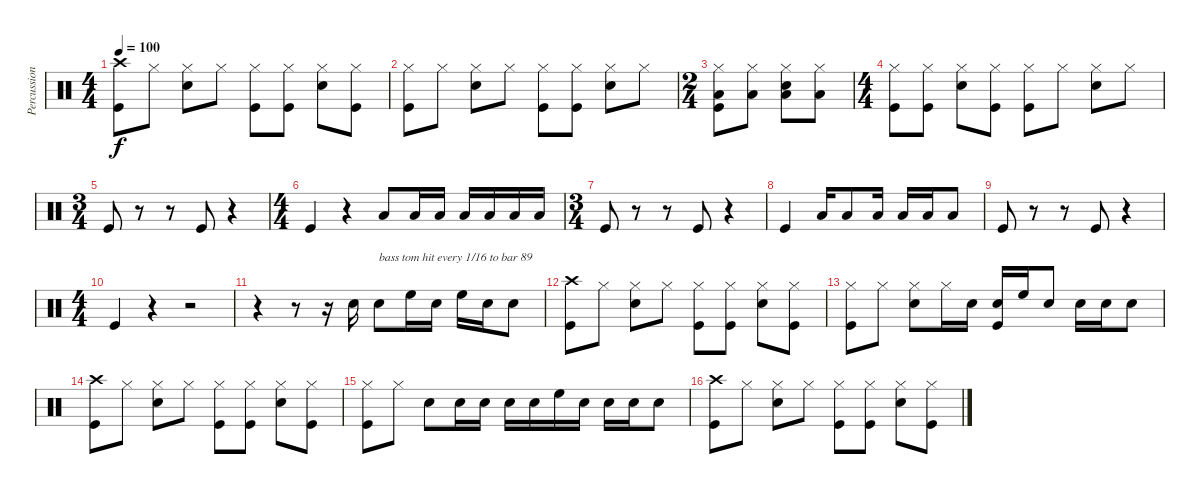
\track ("Percussion" "Percussion") {instrument percussion}
\staff {score}
\articulation defaults
\ts (4 4)
\tempo 100
\clef neutral
\ks c
("Crash high (hit)" "Kick (hit)").8{dy f} "Hi-Hat (closed)".8 ("Hi-Hat (closed)" "Snare (hit) 2").8 "Hi-Hat (closed)".8 ("Hi-Hat (closed)" "Kick (hit)").8 ("Hi-Hat (closed)" "Kick (hit)").8 ("Hi-Hat (closed)" "Snare (hit) 2").8 ("Hi-Hat (closed)" "Kick (hit)").8 |
("Hi-Hat (closed)" "Kick (hit)").8 "Hi-Hat (closed)".8 ("Hi-Hat (closed)" "Snare (hit) 2").8 "Hi-Hat (closed)".8 ("Hi-Hat (closed)" "Kick (hit)").8 ("Hi-Hat (closed)" "Kick (hit)").8 ("Hi-Hat (closed)" "Snare (hit) 2").8 "Hi-Hat (closed)".8 |
\ts (2 4)
("Hi-Hat (closed)" "Low Floor Tom (hit)" "Kick (hit)").8 ("Hi-Hat (closed)" "Low Floor Tom (hit)").8 ("Hi-Hat (closed)" "Snare (hit) 2" "Low Floor Tom (hit)").8 ("Hi-Hat (closed)" "Low Floor Tom (hit)").8 |
\ts (4 4)
("Hi-Hat (closed)" "Kick (hit)").8 ("Hi-Hat (closed)" "Kick (hit)").8 ("Hi-Hat (closed)" "Snare (hit) 2").8 ("Hi-Hat (closed)" "Kick (hit)").8 ("Hi-Hat (closed)" "Kick (hit)").8 "Hi-Hat (closed)".8 ("Hi-Hat (closed)" "Snare (hit) 2").8 "Hi-Hat (closed)".8 |
\ts (3 4)
"Kick (hit)".8 r.8 r.8 "Kick (hit)".8 r.4 |
\ts (4 4)
"Kick (hit)".4 r.4 "Low Tom (hit)".8 "Low Tom (hit)".16 "Low Tom (hit)".16 "Low Tom (hit)".16 "Low Tom (hit)".16 "Low Tom (hit)".16 "Low Tom (hit)".16 |
\ts (3 4)
"Kick (hit)".8 r.8 r.8 "Kick (hit)".8 r.4 |
"Kick (hit)".4 "Low Tom (hit)".16 "Low Tom (hit)".8 "Low Tom (hit)".16 "Low Tom (hit)".16 "Low Tom (hit)".16 "Low Tom (hit)".8 |
"Kick (hit)".8 r.8 r.8 "Kick (hit)".8 r.4 |
\ts (4 4)
"Kick (hit)".4 r.4 r.2 |
r.4 r.8 r.16 "Snare (hit) 2".16 "Snare (hit) 2".8{txt "bass tom hit every 1/16 to bar 89"} "High Floor Tom (hit)".16 "Snare (hit) 2".16 "High Floor Tom (hit)".16 "Snare (hit) 2".16 "Snare (hit) 2".8 |
("Crash high (hit)" "Kick (hit)").8 "Hi-Hat (closed)".8 ("Hi-Hat (closed)" "Snare (hit) 2").8 "Hi-Hat (closed)".8 ("Hi-Hat (closed)" "Kick (hit)").8 ("Hi-Hat (closed)" "Kick (hit)").8 ("Hi-Hat (closed)" "Snare (hit) 2").8 ("Hi-Hat (closed)" "Kick (hit)").8 |
("Hi-Hat (closed)" "Kick (hit)").8 "Hi-Hat (closed)".8 ("Hi-Hat (closed)" "Snare (hit) 2").8 "Hi-Hat (closed)".16 "Snare (hit) 2".16 ("Snare (hit) 2" "Kick (hit)").16 "High Floor Tom (hit)".16 "Snare (hit) 2".8 "Snare (hit) 2".16 "Snare (hit) 2".16 "Snare (hit) 2".8 |
("Crash high (hit)" "Kick (hit)").8 "Hi-Hat (closed)".8 ("Hi-Hat (closed)" "Snare (hit) 2").8 "Hi-Hat (closed)".8 ("Hi-Hat (closed)" "Kick (hit)").8 ("Hi-Hat (closed)" "Kick (hit)").8 ("Hi-Hat (closed)" "Snare (hit) 2").8 ("Hi-Hat (closed)" "Kick (hit)").8 |
("Hi-Hat (closed)" "Kick (hit)").8 "Hi-Hat (closed)".8 "Snare (hit) 2".8 "Snare (hit) 2".16 "Snare (hit) 2".16 "Snare (hit) 2".16 "Snare (hit) 2".16 "High Floor Tom (hit)".16 "Snare (hit) 2".16 "Snare (hit) 2".16 "Snare (hit) 2".16 "Snare (hit) 2".8 |
("Crash high (hit)" "Kick (hit)").8 "Hi-Hat (closed)".8 ("Hi-Hat (closed)" "Snare (hit) 2").8 "Hi-Hat (closed)".8 ("Hi-Hat (closed)" "Kick (hit)").8 ("Hi-Hat (closed)" "Kick (hit)").8 ("Hi-Hat (closed)" "Snare (hit) 2").8 ("Hi-Hat (closed)" "Kick (hit)").8
